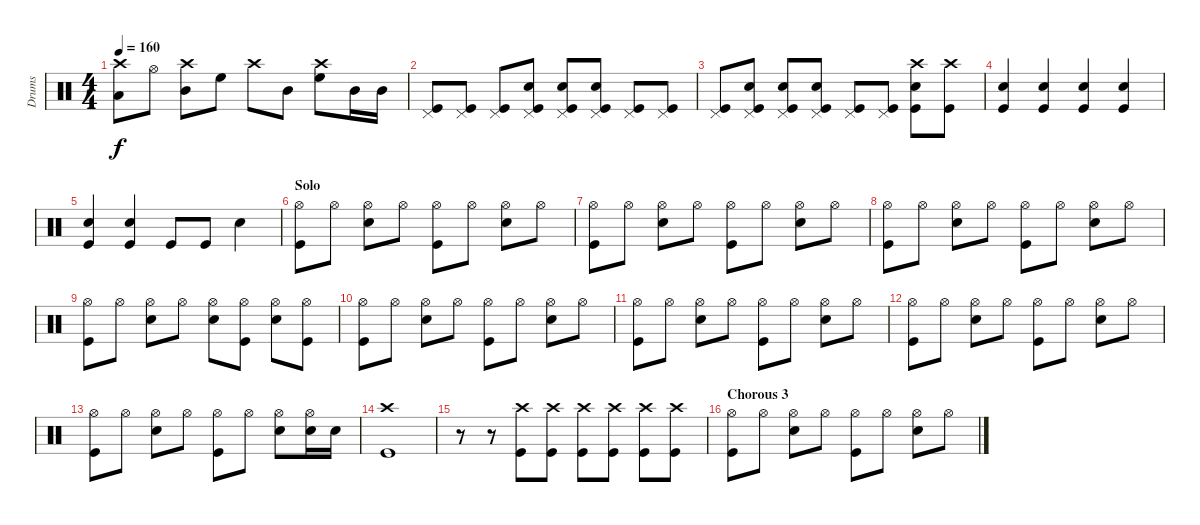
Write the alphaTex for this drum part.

\track ("Drums" "Drums") {instrument percussion}
\staff {score}
\articulation defaults
\ts (4 4)
\tempo 160
\clef neutral
\ks c
("Crash high (hit)" "Low Tom (hit)").8{dy f} "Hi-Hat (open)".8 ("Crash high (hit)" "Mid Tom (hit)").8 "High Floor Tom (hit)".8 "Crash high (hit)".8 "Mid Tom (hit)".8 ("Crash high (hit)" "High Floor Tom (hit)").8 "Mid Tom (hit)".16 "Mid Tom (hit)".16 |
("Pedal Hi-Hat (hit)" "Kick (hit)").8 ("Pedal Hi-Hat (hit)" "Kick (hit)").8 ("Pedal Hi-Hat (hit)" "Kick (hit)").8 ("Pedal Hi-Hat (hit)" "Snare (hit) 2" "Kick (hit)").8 ("Pedal Hi-Hat (hit)" "Snare (hit) 2" "Kick (hit)").8 ("Pedal Hi-Hat (hit)" "Snare (hit) 2" "Kick (hit)").8 ("Pedal Hi-Hat (hit)" "Kick (hit)").8 ("Pedal Hi-Hat (hit)" "Kick (hit)").8 |
("Pedal Hi-Hat (hit)" "Kick (hit)").8 ("Pedal Hi-Hat (hit)" "Snare (hit) 2" "Kick (hit)").8 ("Pedal Hi-Hat (hit)" "Snare (hit) 2" "Kick (hit)").8 ("Pedal Hi-Hat (hit)" "Snare (hit) 2" "Kick (hit)").8 ("Pedal Hi-Hat (hit)" "Kick (hit)").8 ("Pedal Hi-Hat (hit)" "Kick (hit)").8 ("Crash high (hit)" "Snare (hit) 2" "Kick (hit)").8 ("Crash high (hit)" "Kick (hit)").8 |
("Snare (hit) 2" "Kick (hit)").4 ("Snare (hit) 2" "Kick (hit)").4 ("Snare (hit) 2" "Kick (hit)").4 ("Snare (hit) 2" "Kick (hit)").4 |
("Snare (hit) 2" "Kick (hit)").4 ("Snare (hit) 2" "Kick (hit)").4 "Kick (hit)".8 "Kick (hit)".8 "Snare (hit) 2".4 |
\section ("" "Solo")
("Hi-Hat (open)" "Kick (hit)").8 "Hi-Hat (open)".8 ("Hi-Hat (open)" "Snare (hit) 2").8 "Hi-Hat (open)".8 ("Hi-Hat (open)" "Kick (hit)").8 "Hi-Hat (open)".8 ("Hi-Hat (open)" "Snare (hit) 2").8 "Hi-Hat (open)".8 |
("Hi-Hat (open)" "Kick (hit)").8 "Hi-Hat (open)".8 ("Hi-Hat (open)" "Snare (hit) 2").8 "Hi-Hat (open)".8 ("Hi-Hat (open)" "Kick (hit)").8 "Hi-Hat (open)".8 ("Hi-Hat (open)" "Snare (hit) 2").8 "Hi-Hat (open)".8 |
("Hi-Hat (open)" "Kick (hit)").8 "Hi-Hat (open)".8 ("Hi-Hat (open)" "Snare (hit) 2").8 "Hi-Hat (open)".8 ("Hi-Hat (open)" "Kick (hit)").8 "Hi-Hat (open)".8 ("Hi-Hat (open)" "Snare (hit) 2").8 "Hi-Hat (open)".8 |
("Hi-Hat (open)" "Kick (hit)").8 "Hi-Hat (open)".8 ("Hi-Hat (open)" "Snare (hit) 2").8 "Hi-Hat (open)".8 ("Hi-Hat (open)" "Snare (hit) 2").8 ("Hi-Hat (open)" "Kick (hit)").8 ("Hi-Hat (open)" "Snare (hit) 2").8 ("Hi-Hat (open)" "Kick (hit)").8 |
("Hi-Hat (open)" "Kick (hit)").8 "Hi-Hat (open)".8 ("Hi-Hat (open)" "Snare (hit) 2").8 "Hi-Hat (open)".8 ("Hi-Hat (open)" "Kick (hit)").8 "Hi-Hat (open)".8 ("Hi-Hat (open)" "Snare (hit) 2").8 "Hi-Hat (open)".8 |
("Hi-Hat (open)" "Kick (hit)").8 "Hi-Hat (open)".8 ("Hi-Hat (open)" "Snare (hit) 2").8 "Hi-Hat (open)".8 ("Hi-Hat (open)" "Kick (hit)").8 "Hi-Hat (open)".8 ("Hi-Hat (open)" "Snare (hit) 2").8 "Hi-Hat (open)".8 |
("Hi-Hat (open)" "Kick (hit)").8 "Hi-Hat (open)".8 ("Hi-Hat (open)" "Snare (hit) 2").8 "Hi-Hat (open)".8 ("Hi-Hat (open)" "Kick (hit)").8 "Hi-Hat (open)".8 ("Hi-Hat (open)" "Snare (hit) 2").8 "Hi-Hat (open)".8 |
("Hi-Hat (open)" "Kick (hit)").8 "Hi-Hat (open)".8 ("Hi-Hat (open)" "Snare (hit) 2").8 "Hi-Hat (open)".8 ("Hi-Hat (open)" "Kick (hit)").8 "Hi-Hat (open)".8 ("Hi-Hat (open)" "Snare (hit) 2").8 ("Hi-Hat (open)" "Snare (hit) 2").16 "Snare (hit) 2".16 |
("Crash high (hit)" "Kick (hit)").1 |
r.8 r.8 ("Crash high (hit)" "Kick (hit)").8 ("Crash high (hit)" "Kick (hit)").8 ("Crash high (hit)" "Kick (hit)").8 ("Crash high (hit)" "Kick (hit)").8 ("Crash high (hit)" "Kick (hit)").8 ("Crash high (hit)" "Kick (hit)").8 |
\section ("" "Chorous 3")
("Hi-Hat (open)" "Kick (hit)").8 "Hi-Hat (open)".8 ("Hi-Hat (open)" "Snare (hit) 2").8 "Hi-Hat (open)".8 ("Hi-Hat (open)" "Kick (hit)").8 "Hi-Hat (open)".8 ("Hi-Hat (open)" "Snare (hit) 2").8 "Hi-Hat (open)".8
